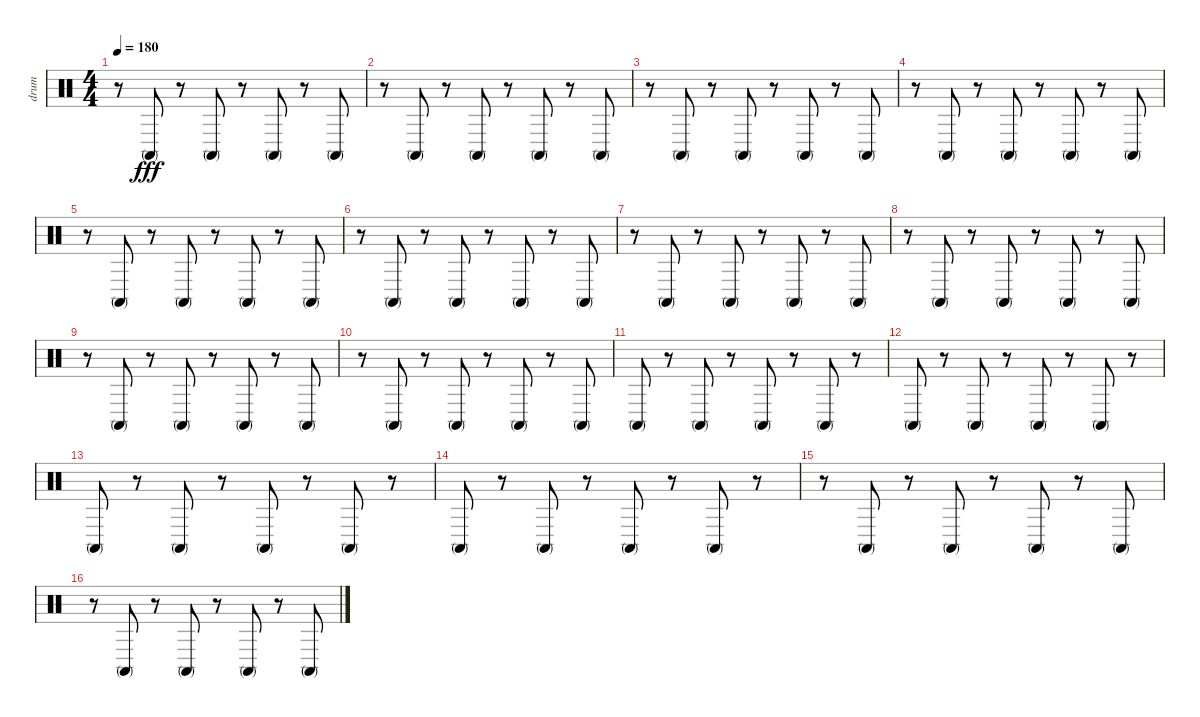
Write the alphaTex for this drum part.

\track ("drum" "drum") {instrument percussion}
\staff {score}
\articulation defaults
\ts (4 4)
\tempo 180
\clef neutral
\ks c
r.8{dy fff} "Conga high (mute)".8 r.8 "Conga high (mute)".8 r.8 "Conga high (mute)".8 r.8 "Conga high (mute)".8 |
r.8 "Conga high (mute)".8 r.8 "Conga high (mute)".8 r.8 "Conga high (mute)".8 r.8 "Conga high (mute)".8 |
r.8 "Conga high (mute)".8 r.8 "Conga high (mute)".8 r.8 "Conga high (mute)".8 r.8 "Conga high (mute)".8 |
r.8 "Conga high (mute)".8 r.8 "Conga high (mute)".8 r.8 "Conga high (mute)".8 r.8 "Conga high (mute)".8 |
r.8 "Conga high (mute)".8 r.8 "Conga high (mute)".8 r.8 "Conga high (mute)".8 r.8 "Conga high (mute)".8 |
r.8 "Conga high (mute)".8 r.8 "Conga high (mute)".8 r.8 "Conga high (mute)".8 r.8 "Conga high (mute)".8 |
r.8 "Conga high (mute)".8 r.8 "Conga high (mute)".8 r.8 "Conga high (mute)".8 r.8 "Conga high (mute)".8 |
r.8 "Conga high (mute)".8 r.8 "Conga high (mute)".8 r.8 "Conga high (mute)".8 r.8 "Conga high (mute)".8 |
r.8 "Conga high (mute)".8 r.8 "Conga high (mute)".8 r.8 "Conga high (mute)".8 r.8 "Conga high (mute)".8 |
r.8 "Conga high (mute)".8 r.8 "Conga high (mute)".8 r.8 "Conga high (mute)".8 r.8 "Conga high (mute)".8 |
"Conga high (mute)".8 r.8 "Conga high (mute)".8 r.8 "Conga high (mute)".8 r.8 "Conga high (mute)".8 r.8 |
"Conga high (mute)".8 r.8 "Conga high (mute)".8 r.8 "Conga high (mute)".8 r.8 "Conga high (mute)".8 r.8 |
"Conga high (mute)".8 r.8 "Conga high (mute)".8 r.8 "Conga high (mute)".8 r.8 "Conga high (mute)".8 r.8 |
"Conga high (mute)".8 r.8 "Conga high (mute)".8 r.8 "Conga high (mute)".8 r.8 "Conga high (mute)".8 r.8 |
r.8 "Conga high (mute)".8 r.8 "Conga high (mute)".8 r.8 "Conga high (mute)".8 r.8 "Conga high (mute)".8 |
r.8 "Conga high (mute)".8 r.8 "Conga high (mute)".8 r.8 "Conga high (mute)".8 r.8 "Conga high (mute)".8
